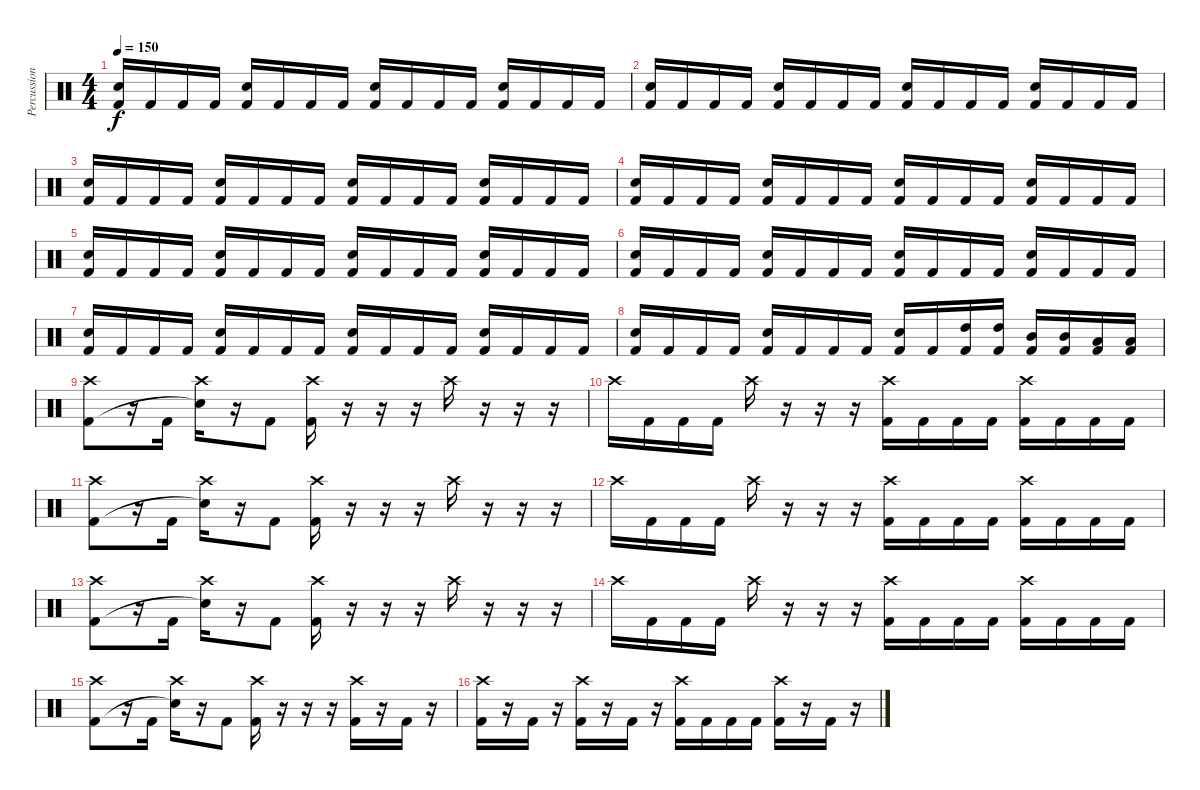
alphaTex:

\track ("Percussion" "Percussion") {instrument percussion}
\staff {score}
\articulation defaults
\ts (4 4)
\tempo 150
\clef neutral
\ks c
("Snare (hit) 2" "Kick (hit) 2").16{dy f} "Kick (hit) 2".16 "Kick (hit) 2".16 "Kick (hit) 2".16 ("Snare (hit) 2" "Kick (hit) 2").16 "Kick (hit) 2".16 "Kick (hit) 2".16 "Kick (hit) 2".16 ("Snare (hit) 2" "Kick (hit) 2").16 "Kick (hit) 2".16 "Kick (hit) 2".16 "Kick (hit) 2".16 ("Snare (hit) 2" "Kick (hit) 2").16 "Kick (hit) 2".16 "Kick (hit) 2".16 "Kick (hit) 2".16 |
("Snare (hit) 2" "Kick (hit) 2").16 "Kick (hit) 2".16 "Kick (hit) 2".16 "Kick (hit) 2".16 ("Snare (hit) 2" "Kick (hit) 2").16 "Kick (hit) 2".16 "Kick (hit) 2".16 "Kick (hit) 2".16 ("Snare (hit) 2" "Kick (hit) 2").16 "Kick (hit) 2".16 "Kick (hit) 2".16 "Kick (hit) 2".16 ("Snare (hit) 2" "Kick (hit) 2").16 "Kick (hit) 2".16 "Kick (hit) 2".16 "Kick (hit) 2".16 |
("Snare (hit) 2" "Kick (hit) 2").16 "Kick (hit) 2".16 "Kick (hit) 2".16 "Kick (hit) 2".16 ("Snare (hit) 2" "Kick (hit) 2").16 "Kick (hit) 2".16 "Kick (hit) 2".16 "Kick (hit) 2".16 ("Snare (hit) 2" "Kick (hit) 2").16 "Kick (hit) 2".16 "Kick (hit) 2".16 "Kick (hit) 2".16 ("Snare (hit) 2" "Kick (hit) 2").16 "Kick (hit) 2".16 "Kick (hit) 2".16 "Kick (hit) 2".16 |
("Snare (hit) 2" "Kick (hit) 2").16 "Kick (hit) 2".16 "Kick (hit) 2".16 "Kick (hit) 2".16 ("Snare (hit) 2" "Kick (hit) 2").16 "Kick (hit) 2".16 "Kick (hit) 2".16 "Kick (hit) 2".16 ("Snare (hit) 2" "Kick (hit) 2").16 "Kick (hit) 2".16 "Kick (hit) 2".16 "Kick (hit) 2".16 ("Snare (hit) 2" "Kick (hit) 2").16 "Kick (hit) 2".16 "Kick (hit) 2".16 "Kick (hit) 2".16 |
("Snare (hit) 2" "Kick (hit) 2").16 "Kick (hit) 2".16 "Kick (hit) 2".16 "Kick (hit) 2".16 ("Snare (hit) 2" "Kick (hit) 2").16 "Kick (hit) 2".16 "Kick (hit) 2".16 "Kick (hit) 2".16 ("Snare (hit) 2" "Kick (hit) 2").16 "Kick (hit) 2".16 "Kick (hit) 2".16 "Kick (hit) 2".16 ("Snare (hit) 2" "Kick (hit) 2").16 "Kick (hit) 2".16 "Kick (hit) 2".16 "Kick (hit) 2".16 |
("Snare (hit) 2" "Kick (hit) 2").16 "Kick (hit) 2".16 "Kick (hit) 2".16 "Kick (hit) 2".16 ("Snare (hit) 2" "Kick (hit) 2").16 "Kick (hit) 2".16 "Kick (hit) 2".16 "Kick (hit) 2".16 ("Snare (hit) 2" "Kick (hit) 2").16 "Kick (hit) 2".16 "Kick (hit) 2".16 "Kick (hit) 2".16 ("Snare (hit) 2" "Kick (hit) 2").16 "Kick (hit) 2".16 "Kick (hit) 2".16 "Kick (hit) 2".16 |
("Snare (hit) 2" "Kick (hit) 2").16 "Kick (hit) 2".16 "Kick (hit) 2".16 "Kick (hit) 2".16 ("Snare (hit) 2" "Kick (hit) 2").16 "Kick (hit) 2".16 "Kick (hit) 2".16 "Kick (hit) 2".16 ("Snare (hit) 2" "Kick (hit) 2").16 "Kick (hit) 2".16 "Kick (hit) 2".16 "Kick (hit) 2".16 ("Snare (hit) 2" "Kick (hit) 2").16 "Kick (hit) 2".16 "Kick (hit) 2".16 "Kick (hit) 2".16 |
("Snare (hit) 2" "Kick (hit) 2").16 "Kick (hit) 2".16 "Kick (hit) 2".16 "Kick (hit) 2".16 ("Snare (hit) 2" "Kick (hit) 2").16 "Kick (hit) 2".16 "Kick (hit) 2".16 "Kick (hit) 2".16 ("Snare (hit) 2" "Kick (hit) 2").16 "Kick (hit) 2".16 ("High Tom (hit)" "Kick (hit) 2").16 ("High Tom (hit)" "Kick (hit) 2").16 ("Mid Tom (hit)" "Kick (hit) 2").16 ("Mid Tom (hit)" "Kick (hit) 2").16 ("Low Tom (hit)" "Kick (hit) 2").16 ("Low Tom (hit)" "Kick (hit) 2").16 |
("Crash high (hit)" "Kick (hit) 2").8 r.16 "Kick (hit) 2".16 ("Crash high (hit)" "Snare (hit)"{t}).16 r.16 "Kick (hit) 2".8 ("Crash high (hit)" "Kick (hit) 2").16 r.16 r.16 r.16 "Crash high (hit)".16 r.16 r.16 r.16 |
"Crash high (hit)".16 "Kick (hit) 2".16 "Kick (hit) 2".16 "Kick (hit) 2".16 "Crash high (hit)".16 r.16 r.16 r.16 ("Crash high (hit)" "Kick (hit) 2").16 "Kick (hit) 2".16 "Kick (hit) 2".16 "Kick (hit) 2".16 ("Crash high (hit)" "Kick (hit) 2").16 "Kick (hit) 2".16 "Kick (hit) 2".16 "Kick (hit) 2".16 |
("Crash high (hit)" "Kick (hit) 2").8 r.16 "Kick (hit) 2".16 ("Crash high (hit)" "Snare (hit)"{t}).16 r.16 "Kick (hit) 2".8 ("Crash high (hit)" "Kick (hit) 2").16 r.16 r.16 r.16 "Crash high (hit)".16 r.16 r.16 r.16 |
"Crash high (hit)".16 "Kick (hit) 2".16 "Kick (hit) 2".16 "Kick (hit) 2".16 "Crash high (hit)".16 r.16 r.16 r.16 ("Crash high (hit)" "Kick (hit) 2").16 "Kick (hit) 2".16 "Kick (hit) 2".16 "Kick (hit) 2".16 ("Crash high (hit)" "Kick (hit) 2").16 "Kick (hit) 2".16 "Kick (hit) 2".16 "Kick (hit) 2".16 |
("Crash high (hit)" "Kick (hit) 2").8 r.16 "Kick (hit) 2".16 ("Crash high (hit)" "Snare (hit)"{t}).16 r.16 "Kick (hit) 2".8 ("Crash high (hit)" "Kick (hit) 2").16 r.16 r.16 r.16 "Crash high (hit)".16 r.16 r.16 r.16 |
"Crash high (hit)".16 "Kick (hit) 2".16 "Kick (hit) 2".16 "Kick (hit) 2".16 "Crash high (hit)".16 r.16 r.16 r.16 ("Crash high (hit)" "Kick (hit) 2").16 "Kick (hit) 2".16 "Kick (hit) 2".16 "Kick (hit) 2".16 ("Crash high (hit)" "Kick (hit) 2").16 "Kick (hit) 2".16 "Kick (hit) 2".16 "Kick (hit) 2".16 |
("Crash high (hit)" "Kick (hit) 2").8 r.16 "Kick (hit) 2".16 ("Crash high (hit)" "Snare (hit)"{t}).16 r.16 "Kick (hit) 2".8 ("Crash high (hit)" "Kick (hit) 2").16 r.16 r.16 r.16 ("Crash high (hit)" "Kick (hit) 2").16 r.16 "Kick (hit) 2".16 r.16 |
("Crash high (hit)" "Kick (hit) 2").16 r.16 "Kick (hit) 2".16 r.16 ("Crash high (hit)" "Kick (hit) 2").16 r.16 "Kick (hit) 2".16 r.16 ("Crash high (hit)" "Kick (hit) 2").16 "Kick (hit) 2".16 "Kick (hit) 2".16 "Kick (hit) 2".16 ("Crash high (hit)" "Kick (hit) 2").16 r.16 "Kick (hit) 2".16 r.16
